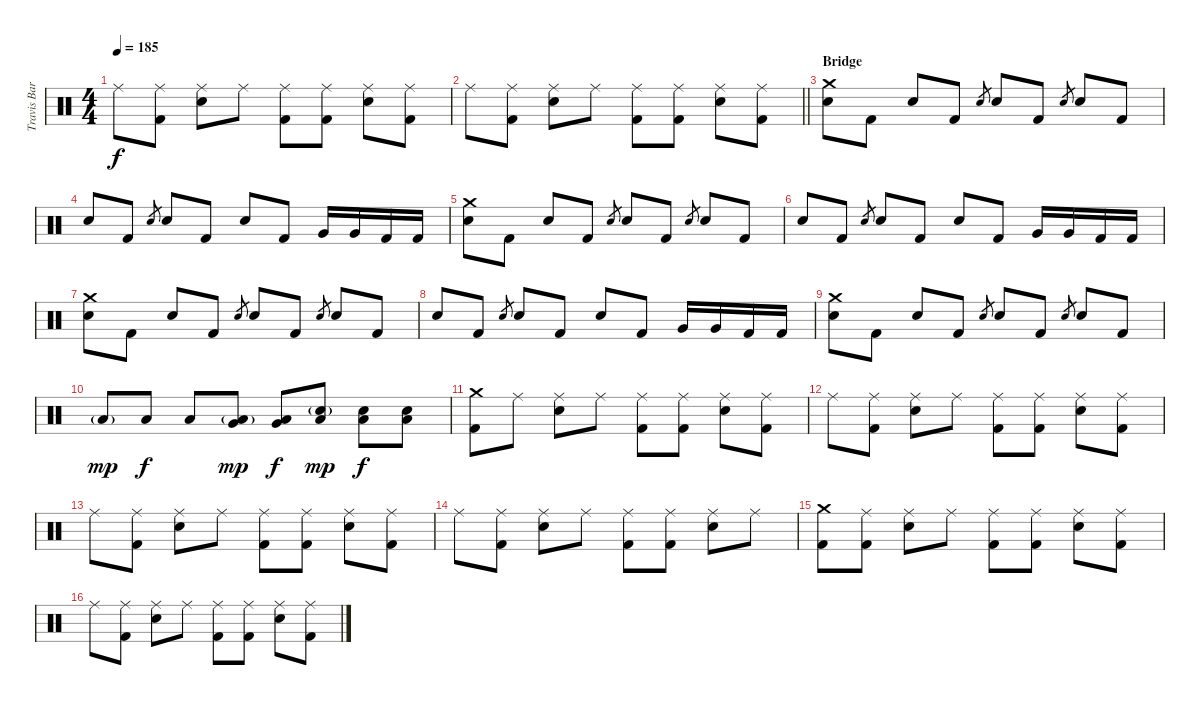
\track ("Travis Barker - Drums" "Travis Bar") {instrument percussion}
\staff {score}
\articulation defaults
\ts (4 4)
\tempo 185
\clef neutral
\ks c "Ride (middle)".8{dy f}
("Ride (middle)" "Kick (hit) 2").8 ("Ride (middle)" "Electric Snare (hit)").8 "Ride (middle)".8 ("Ride (middle)" "Kick (hit) 2").8 ("Ride (middle)" "Kick (hit) 2").8 ("Ride (middle)" "Electric Snare (hit)").8 ("Ride (middle)" "Kick (hit) 2").8 |
\barLineRight lightlight "Ride (middle)".8
("Ride (middle)" "Kick (hit) 2").8 ("Ride (middle)" "Electric Snare (hit)").8 "Ride (middle)".8 ("Ride (middle)" "Kick (hit) 2").8 ("Ride (middle)" "Kick (hit) 2").8 ("Ride (middle)" "Electric Snare (hit)").8 ("Ride (middle)" "Kick (hit) 2").8 |
\section ("" "Bridge")
("Crash medium (hit)" "Electric Snare (hit)").8 "Kick (hit) 2".8 "Electric Snare (hit)".8 "Kick (hit) 2".8 "Electric Snare (hit)".8{gr} "Electric Snare (hit)".8 "Kick (hit) 2".8 "Electric Snare (hit)".8{gr} "Electric Snare (hit)".8 "Kick (hit) 2".8 |
"Electric Snare (hit)".8 "Kick (hit) 2".8 "Electric Snare (hit)".8{gr} "Electric Snare (hit)".8 "Kick (hit) 2".8 "Electric Snare (hit)".8 "Kick (hit) 2".8 "Very Low Tom (hit)".16 "Very Low Tom (hit)".16 "Kick (hit) 2".16 "Kick (hit) 2".16 |
("Crash medium (hit)" "Electric Snare (hit)").8 "Kick (hit) 2".8 "Electric Snare (hit)".8 "Kick (hit) 2".8 "Electric Snare (hit)".8{gr} "Electric Snare (hit)".8 "Kick (hit) 2".8 "Electric Snare (hit)".8{gr} "Electric Snare (hit)".8 "Kick (hit) 2".8 |
"Electric Snare (hit)".8 "Kick (hit) 2".8 "Electric Snare (hit)".8{gr} "Electric Snare (hit)".8 "Kick (hit) 2".8 "Electric Snare (hit)".8 "Kick (hit) 2".8 "Very Low Tom (hit)".16 "Very Low Tom (hit)".16 "Kick (hit) 2".16 "Kick (hit) 2".16 |
("Crash medium (hit)" "Electric Snare (hit)").8 "Kick (hit) 2".8 "Electric Snare (hit)".8 "Kick (hit) 2".8 "Electric Snare (hit)".8{gr} "Electric Snare (hit)".8 "Kick (hit) 2".8 "Electric Snare (hit)".8{gr} "Electric Snare (hit)".8 "Kick (hit) 2".8 |
"Electric Snare (hit)".8 "Kick (hit) 2".8 "Electric Snare (hit)".8{gr} "Electric Snare (hit)".8 "Kick (hit) 2".8 "Electric Snare (hit)".8 "Kick (hit) 2".8 "Very Low Tom (hit)".16 "Very Low Tom (hit)".16 "Kick (hit) 2".16 "Kick (hit) 2".16 |
("Crash medium (hit)" "Electric Snare (hit)").8 "Kick (hit) 2".8 "Electric Snare (hit)".8 "Kick (hit) 2".8 "Electric Snare (hit)".8{gr} "Electric Snare (hit)".8 "Kick (hit) 2".8 "Electric Snare (hit)".8{gr} "Electric Snare (hit)".8 "Kick (hit) 2".8 |
"Low Floor Tom (hit)"{g}.8{dy mp} "Low Floor Tom (hit)".8{dy f} "Low Floor Tom (hit)".8 ("Low Tom (hit)"{g} "Very Low Tom (hit)").8{dy mp} ("Low Tom (hit)" "Very Low Tom (hit)").8{dy f} ("Electric Snare (hit)"{g} "Low Tom (hit)").8{dy mp} ("Electric Snare (hit)" "Low Tom (hit)").8{dy f} ("Electric Snare (hit)" "Low Tom (hit)").8 |
("Crash medium (hit)" "Kick (hit) 2").8 "Ride (middle)".8 ("Ride (middle)" "Electric Snare (hit)").8 "Ride (middle)".8 ("Ride (middle)" "Kick (hit) 2").8 ("Ride (middle)" "Kick (hit) 2").8 ("Ride (middle)" "Electric Snare (hit)").8 ("Ride (middle)" "Kick (hit) 2").8 |
"Ride (middle)".8 ("Ride (middle)" "Kick (hit) 2").8 ("Ride (middle)" "Electric Snare (hit)").8 "Ride (middle)".8 ("Ride (middle)" "Kick (hit) 2").8 ("Ride (middle)" "Kick (hit) 2").8 ("Ride (middle)" "Electric Snare (hit)").8 ("Ride (middle)" "Kick (hit) 2").8 |
"Ride (middle)".8 ("Ride (middle)" "Kick (hit) 2").8 ("Ride (middle)" "Electric Snare (hit)").8 "Ride (middle)".8 ("Ride (middle)" "Kick (hit) 2").8 ("Ride (middle)" "Kick (hit) 2").8 ("Ride (middle)" "Electric Snare (hit)").8 ("Ride (middle)" "Kick (hit) 2").8 |
"Ride (middle)".8 ("Ride (middle)" "Kick (hit) 2").8 ("Ride (middle)" "Electric Snare (hit)").8 "Ride (middle)".8 ("Ride (middle)" "Kick (hit) 2").8 ("Ride (middle)" "Kick (hit) 2").8 ("Ride (middle)" "Electric Snare (hit)").8 "Ride (middle)".8 |
("Crash medium (hit)" "Kick (hit) 2").8 ("Ride (middle)" "Kick (hit) 2").8 ("Ride (middle)" "Electric Snare (hit)").8 "Ride (middle)".8 ("Ride (middle)" "Kick (hit) 2").8 ("Ride (middle)" "Kick (hit) 2").8 ("Ride (middle)" "Electric Snare (hit)").8 ("Ride (middle)" "Kick (hit) 2").8 |
"Ride (middle)".8 ("Ride (middle)" "Kick (hit) 2").8 ("Ride (middle)" "Electric Snare (hit)").8 "Ride (middle)".8 ("Ride (middle)" "Kick (hit) 2").8 ("Ride (middle)" "Kick (hit) 2").8 ("Ride (middle)" "Electric Snare (hit)").8 ("Ride (middle)" "Kick (hit) 2").8
